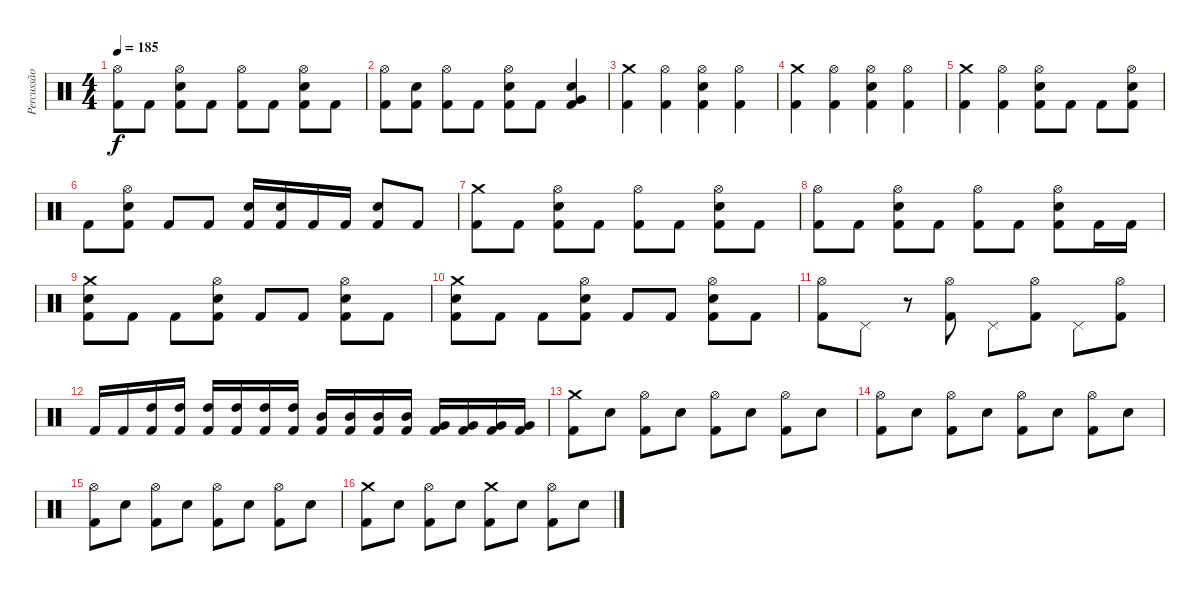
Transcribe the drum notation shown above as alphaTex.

\track ("Percussão" "Percussão") {instrument percussion}
\staff {score}
\articulation defaults
\ts (4 4)
\tempo 185
\clef neutral
\ks c
("Hi-Hat (open)" "Kick (hit) 2").8{dy f} "Kick (hit) 2".8 ("Hi-Hat (open)" "Snare (hit) 2" "Kick (hit) 2").8 "Kick (hit) 2".8 ("Hi-Hat (open)" "Kick (hit) 2").8 "Kick (hit) 2".8 ("Hi-Hat (open)" "Snare (hit) 2" "Kick (hit) 2").8 "Kick (hit) 2".8 |
("Hi-Hat (open)" "Kick (hit) 2").8 ("Snare (hit) 2" "Kick (hit) 2").8 ("Hi-Hat (open)" "Kick (hit) 2").8 "Kick (hit) 2".8 ("Hi-Hat (open)" "Snare (hit) 2" "Kick (hit) 2").8 "Kick (hit) 2".8 ("Very Low Tom (hit)" "Snare (hit) 2" "Kick (hit) 2").4 |
("Crash medium (hit)" "Kick (hit) 2").4 ("Hi-Hat (open)" "Kick (hit) 2").4 ("Hi-Hat (open)" "Snare (hit) 2" "Kick (hit) 2").4 ("Hi-Hat (open)" "Kick (hit) 2").4 |
("Crash medium (hit)" "Kick (hit) 2").4 ("Hi-Hat (open)" "Kick (hit) 2").4 ("Hi-Hat (open)" "Snare (hit) 2" "Kick (hit) 2").4 ("Hi-Hat (open)" "Kick (hit) 2").4 |
("Crash medium (hit)" "Kick (hit) 2").4 ("Hi-Hat (open)" "Kick (hit) 2").4 ("Hi-Hat (open)" "Snare (hit) 2" "Kick (hit) 2").8 "Kick (hit) 2".8 "Kick (hit) 2".8 ("Hi-Hat (open)" "Snare (hit) 2" "Kick (hit) 2").8 |
"Kick (hit) 2".8 ("Hi-Hat (open)" "Snare (hit) 2" "Kick (hit) 2").8 "Kick (hit) 2".8 "Kick (hit) 2".8 ("Snare (hit) 2" "Kick (hit) 2").16 ("Snare (hit) 2" "Kick (hit) 2").16 "Kick (hit) 2".16 "Kick (hit) 2".16 ("Snare (hit) 2" "Kick (hit) 2").8 "Kick (hit) 2".8 |
("Crash medium (hit)" "Kick (hit) 2").8 "Kick (hit) 2".8 ("Hi-Hat (open)" "Snare (hit) 2" "Kick (hit) 2").8 "Kick (hit) 2".8 ("Hi-Hat (open)" "Kick (hit) 2").8 "Kick (hit) 2".8 ("Hi-Hat (open)" "Snare (hit) 2" "Kick (hit) 2").8 "Kick (hit) 2".8 |
("Hi-Hat (open)" "Kick (hit) 2").8 "Kick (hit) 2".8 ("Hi-Hat (open)" "Snare (hit) 2" "Kick (hit) 2").8 "Kick (hit) 2".8 ("Hi-Hat (open)" "Kick (hit) 2").8 "Kick (hit) 2".8 ("Hi-Hat (open)" "Snare (hit) 2" "Kick (hit) 2").8 "Kick (hit) 2".16 "Kick (hit) 2".16 |
("Crash medium (hit)" "Snare (hit) 2" "Kick (hit) 2").8 "Kick (hit) 2".8 "Kick (hit) 2".8 ("Hi-Hat (open)" "Snare (hit) 2" "Kick (hit) 2").8 "Kick (hit) 2".8 "Kick (hit) 2".8 ("Hi-Hat (open)" "Snare (hit) 2" "Kick (hit) 2").8 "Kick (hit) 2".8 |
("Crash medium (hit)" "Snare (hit) 2" "Kick (hit) 2").8 "Kick (hit) 2".8 "Kick (hit) 2".8 ("Hi-Hat (open)" "Snare (hit) 2" "Kick (hit) 2").8 "Kick (hit) 2".8 "Kick (hit) 2".8 ("Hi-Hat (open)" "Snare (hit) 2" "Kick (hit) 2").8 "Kick (hit) 2".8 |
("Hi-Hat (open)" "Kick (hit) 2").8 "Pedal Hi-Hat (hit)".8 r.8 ("Hi-Hat (open)" "Kick (hit) 2").8 "Pedal Hi-Hat (hit)".8 ("Hi-Hat (open)" "Kick (hit) 2").8 "Pedal Hi-Hat (hit)".8 ("Hi-Hat (open)" "Kick (hit) 2").8 |
"Kick (hit) 2".16 "Kick (hit) 2".16 ("High Tom (hit)" "Kick (hit) 2").16 ("High Tom (hit)" "Kick (hit) 2").16 ("High Tom (hit)" "Kick (hit) 2").16 ("High Tom (hit)" "Kick (hit) 2").16 ("High Tom (hit)" "Kick (hit) 2").16 ("High Tom (hit)" "Kick (hit) 2").16 ("Mid Tom (hit)" "Kick (hit) 2").16 ("Mid Tom (hit)" "Kick (hit) 2").16 ("Mid Tom (hit)" "Kick (hit) 2").16 ("Mid Tom (hit)" "Kick (hit) 2").16 ("Very Low Tom (hit)" "Kick (hit) 2").16 ("Very Low Tom (hit)" "Kick (hit) 2").16 ("Very Low Tom (hit)" "Kick (hit) 2").16 ("Very Low Tom (hit)" "Kick (hit) 2").16 |
("Crash medium (hit)" "Kick (hit) 2").8 "Snare (hit) 2".8 ("Hi-Hat (open)" "Kick (hit) 2").8 "Snare (hit) 2".8 ("Hi-Hat (open)" "Kick (hit) 2").8 "Snare (hit) 2".8 ("Hi-Hat (open)" "Kick (hit) 2").8 "Snare (hit) 2".8 |
("Hi-Hat (open)" "Kick (hit) 2").8 "Snare (hit) 2".8 ("Hi-Hat (open)" "Kick (hit) 2").8 "Snare (hit) 2".8 ("Hi-Hat (open)" "Kick (hit) 2").8 "Snare (hit) 2".8 ("Hi-Hat (open)" "Kick (hit) 2").8 "Snare (hit) 2".8 |
("Hi-Hat (open)" "Kick (hit) 2").8 "Snare (hit) 2".8 ("Hi-Hat (open)" "Kick (hit) 2").8 "Snare (hit) 2".8 ("Hi-Hat (open)" "Kick (hit) 2").8 "Snare (hit) 2".8 ("Hi-Hat (open)" "Kick (hit) 2").8 "Snare (hit) 2".8 |
("Crash medium (hit)" "Kick (hit) 2").8 "Snare (hit) 2".8 ("Hi-Hat (open)" "Kick (hit) 2").8 "Snare (hit) 2".8 ("Crash medium (hit)" "Kick (hit) 2").8 "Snare (hit) 2".8 ("Hi-Hat (open)" "Kick (hit) 2").8 "Snare (hit) 2".8
